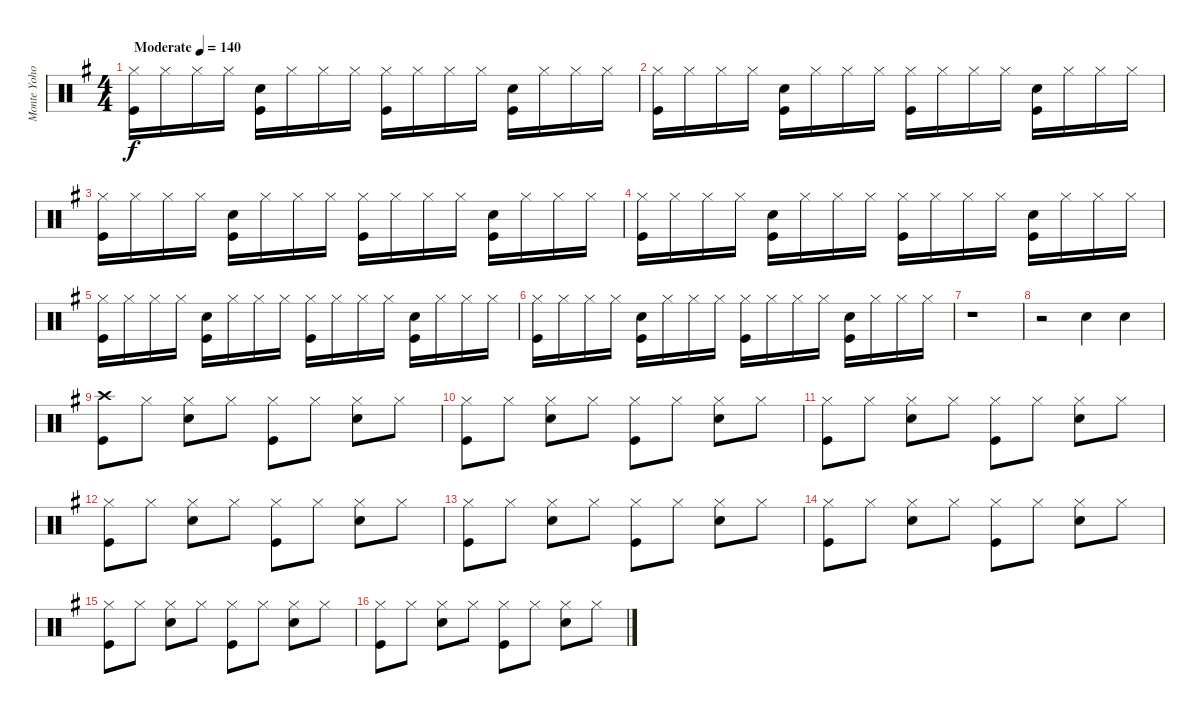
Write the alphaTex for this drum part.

\track ("Monte Yoho Drums" "Monte Yoho") {instrument percussion}
\staff {score}
\articulation defaults
\ts (4 4)
\tempo (140 "Moderate")
\clef neutral
\ks g
("Hi-Hat (closed)" "Kick (hit)").16{dy f} "Hi-Hat (closed)".16 "Hi-Hat (closed)".16 "Hi-Hat (closed)".16 ("Snare (hit) 2" "Kick (hit)").16 "Hi-Hat (closed)".16 "Hi-Hat (closed)".16 "Hi-Hat (closed)".16 ("Hi-Hat (closed)" "Kick (hit)").16 "Hi-Hat (closed)".16 "Hi-Hat (closed)".16 "Hi-Hat (closed)".16 ("Snare (hit) 2" "Kick (hit)").16 "Hi-Hat (closed)".16 "Hi-Hat (closed)".16 "Hi-Hat (closed)".16 |
("Hi-Hat (closed)" "Kick (hit)").16 "Hi-Hat (closed)".16 "Hi-Hat (closed)".16 "Hi-Hat (closed)".16 ("Snare (hit) 2" "Kick (hit)").16 "Hi-Hat (closed)".16 "Hi-Hat (closed)".16 "Hi-Hat (closed)".16 ("Hi-Hat (closed)" "Kick (hit)").16 "Hi-Hat (closed)".16 "Hi-Hat (closed)".16 "Hi-Hat (closed)".16 ("Snare (hit) 2" "Kick (hit)").16 "Hi-Hat (closed)".16 "Hi-Hat (closed)".16 "Hi-Hat (closed)".16 |
("Hi-Hat (closed)" "Kick (hit)").16 "Hi-Hat (closed)".16 "Hi-Hat (closed)".16 "Hi-Hat (closed)".16 ("Snare (hit) 2" "Kick (hit)").16 "Hi-Hat (closed)".16 "Hi-Hat (closed)".16 "Hi-Hat (closed)".16 ("Hi-Hat (closed)" "Kick (hit)").16 "Hi-Hat (closed)".16 "Hi-Hat (closed)".16 "Hi-Hat (closed)".16 ("Snare (hit) 2" "Kick (hit)").16 "Hi-Hat (closed)".16 "Hi-Hat (closed)".16 "Hi-Hat (closed)".16 |
("Hi-Hat (closed)" "Kick (hit)").16 "Hi-Hat (closed)".16 "Hi-Hat (closed)".16 "Hi-Hat (closed)".16 ("Snare (hit) 2" "Kick (hit)").16 "Hi-Hat (closed)".16 "Hi-Hat (closed)".16 "Hi-Hat (closed)".16 ("Hi-Hat (closed)" "Kick (hit)").16 "Hi-Hat (closed)".16 "Hi-Hat (closed)".16 "Hi-Hat (closed)".16 ("Snare (hit) 2" "Kick (hit)").16 "Hi-Hat (closed)".16 "Hi-Hat (closed)".16 "Hi-Hat (closed)".16 |
("Hi-Hat (closed)" "Kick (hit)").16 "Hi-Hat (closed)".16 "Hi-Hat (closed)".16 "Hi-Hat (closed)".16 ("Snare (hit) 2" "Kick (hit)").16 "Hi-Hat (closed)".16 "Hi-Hat (closed)".16 "Hi-Hat (closed)".16 ("Hi-Hat (closed)" "Kick (hit)").16 "Hi-Hat (closed)".16 "Hi-Hat (closed)".16 "Hi-Hat (closed)".16 ("Snare (hit) 2" "Kick (hit)").16 "Hi-Hat (closed)".16 "Hi-Hat (closed)".16 "Hi-Hat (closed)".16 |
("Hi-Hat (closed)" "Kick (hit)").16 "Hi-Hat (closed)".16 "Hi-Hat (closed)".16 "Hi-Hat (closed)".16 ("Snare (hit) 2" "Kick (hit)").16 "Hi-Hat (closed)".16 "Hi-Hat (closed)".16 "Hi-Hat (closed)".16 ("Hi-Hat (closed)" "Kick (hit)").16 "Hi-Hat (closed)".16 "Hi-Hat (closed)".16 "Hi-Hat (closed)".16 ("Snare (hit) 2" "Kick (hit)").16 "Hi-Hat (closed)".16 "Hi-Hat (closed)".16 "Hi-Hat (closed)".16 |
r.1 |
r.2 "Snare (hit) 2".4 "Snare (hit) 2".4 |
("Crash high (hit)" "Kick (hit)").8 "Hi-Hat (closed)".8 ("Hi-Hat (closed)" "Snare (hit) 2").8 "Hi-Hat (closed)".8 ("Hi-Hat (closed)" "Kick (hit)").8 "Hi-Hat (closed)".8 ("Hi-Hat (closed)" "Snare (hit) 2").8 "Hi-Hat (closed)".8 |
("Hi-Hat (closed)" "Kick (hit)").8 "Hi-Hat (closed)".8 ("Hi-Hat (closed)" "Snare (hit) 2").8 "Hi-Hat (closed)".8 ("Hi-Hat (closed)" "Kick (hit)").8 "Hi-Hat (closed)".8 ("Hi-Hat (closed)" "Snare (hit) 2").8 "Hi-Hat (closed)".8 |
("Hi-Hat (closed)" "Kick (hit)").8 "Hi-Hat (closed)".8 ("Hi-Hat (closed)" "Snare (hit) 2").8 "Hi-Hat (closed)".8 ("Hi-Hat (closed)" "Kick (hit)").8 "Hi-Hat (closed)".8 ("Hi-Hat (closed)" "Snare (hit) 2").8 "Hi-Hat (closed)".8 |
("Hi-Hat (closed)" "Kick (hit)").8 "Hi-Hat (closed)".8 ("Hi-Hat (closed)" "Snare (hit) 2").8 "Hi-Hat (closed)".8 ("Hi-Hat (closed)" "Kick (hit)").8 "Hi-Hat (closed)".8 ("Hi-Hat (closed)" "Snare (hit) 2").8 "Hi-Hat (closed)".8 |
("Hi-Hat (closed)" "Kick (hit)").8 "Hi-Hat (closed)".8 ("Hi-Hat (closed)" "Snare (hit) 2").8 "Hi-Hat (closed)".8 ("Hi-Hat (closed)" "Kick (hit)").8 "Hi-Hat (closed)".8 ("Hi-Hat (closed)" "Snare (hit) 2").8 "Hi-Hat (closed)".8 |
("Hi-Hat (closed)" "Kick (hit)").8 "Hi-Hat (closed)".8 ("Hi-Hat (closed)" "Snare (hit) 2").8 "Hi-Hat (closed)".8 ("Hi-Hat (closed)" "Kick (hit)").8 "Hi-Hat (closed)".8 ("Hi-Hat (closed)" "Snare (hit) 2").8 "Hi-Hat (closed)".8 |
("Hi-Hat (closed)" "Kick (hit)").8 "Hi-Hat (closed)".8 ("Hi-Hat (closed)" "Snare (hit) 2").8 "Hi-Hat (closed)".8 ("Hi-Hat (closed)" "Kick (hit)").8 "Hi-Hat (closed)".8 ("Hi-Hat (closed)" "Snare (hit) 2").8 "Hi-Hat (closed)".8 |
("Hi-Hat (closed)" "Kick (hit)").8 "Hi-Hat (closed)".8 ("Hi-Hat (closed)" "Snare (hit) 2").8 "Hi-Hat (closed)".8 ("Hi-Hat (closed)" "Kick (hit)").8 "Hi-Hat (closed)".8 ("Hi-Hat (closed)" "Snare (hit) 2").8 "Hi-Hat (closed)".8
